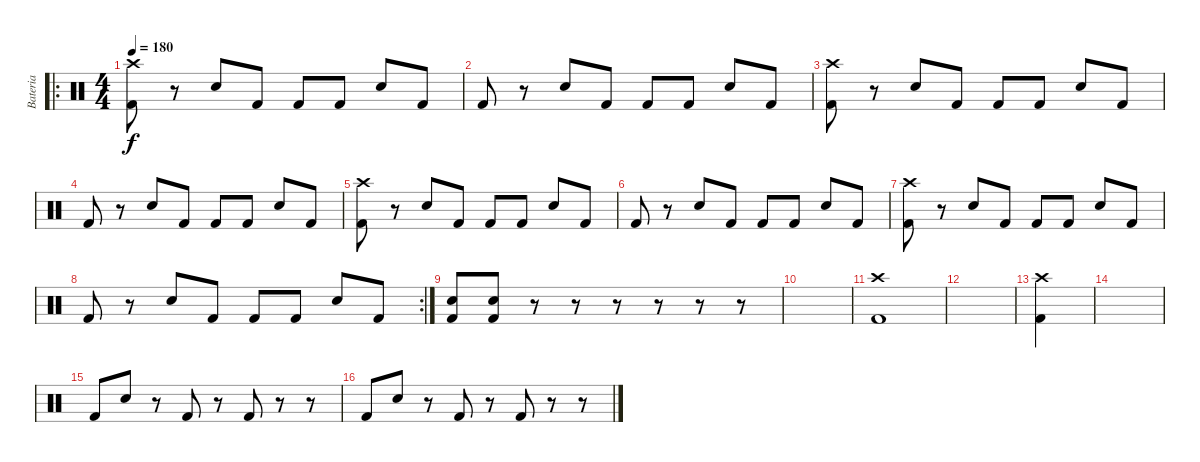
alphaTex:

\track ("Bateria" "Bateria") {instrument percussion}
\staff {score}
\articulation defaults
\ro
\ts (4 4)
\tempo 180
\clef neutral
\ks c
("Kick (hit) 2" "Crash high (hit)").8{dy f} r.8 "Electric Snare (hit)".8 "Kick (hit) 2".8 "Kick (hit) 2".8 "Kick (hit) 2".8 "Electric Snare (hit)".8 "Kick (hit) 2".8 |
"Kick (hit) 2".8 r.8 "Electric Snare (hit)".8 "Kick (hit) 2".8 "Kick (hit) 2".8 "Kick (hit) 2".8 "Electric Snare (hit)".8 "Kick (hit) 2".8 |
("Kick (hit) 2" "Crash high (hit)").8 r.8 "Electric Snare (hit)".8 "Kick (hit) 2".8 "Kick (hit) 2".8 "Kick (hit) 2".8 "Electric Snare (hit)".8 "Kick (hit) 2".8 |
"Kick (hit) 2".8 r.8 "Electric Snare (hit)".8 "Kick (hit) 2".8 "Kick (hit) 2".8 "Kick (hit) 2".8 "Electric Snare (hit)".8 "Kick (hit) 2".8 |
("Kick (hit) 2" "Crash high (hit)").8 r.8 "Electric Snare (hit)".8 "Kick (hit) 2".8 "Kick (hit) 2".8 "Kick (hit) 2".8 "Electric Snare (hit)".8 "Kick (hit) 2".8 |
"Kick (hit) 2".8 r.8 "Electric Snare (hit)".8 "Kick (hit) 2".8 "Kick (hit) 2".8 "Kick (hit) 2".8 "Electric Snare (hit)".8 "Kick (hit) 2".8 |
("Kick (hit) 2" "Crash high (hit)").8 r.8 "Electric Snare (hit)".8 "Kick (hit) 2".8 "Kick (hit) 2".8 "Kick (hit) 2".8 "Electric Snare (hit)".8 "Kick (hit) 2".8 |
\rc 2 "Kick (hit) 2".8
r.8 "Electric Snare (hit)".8 "Kick (hit) 2".8 "Kick (hit) 2".8 "Kick (hit) 2".8 "Electric Snare (hit)".8 "Kick (hit) 2".8 |
("Kick (hit) 2" "Electric Snare (hit)").8 ("Kick (hit) 2" "Electric Snare (hit)").8 r.8 r.8 r.8 r.8 r.8 r.8 |
|
("Kick (hit) 2" "Crash high (hit)").1 |
|
("Kick (hit) 2" "Crash high (hit)").4 |
|
"Kick (hit) 2".8 "Electric Snare (hit)".8 r.8 "Kick (hit) 2".8 r.8 "Kick (hit) 2".8 r.8 r.8 |
"Kick (hit) 2".8 "Electric Snare (hit)".8 r.8 "Kick (hit) 2".8 r.8 "Kick (hit) 2".8 r.8 r.8
